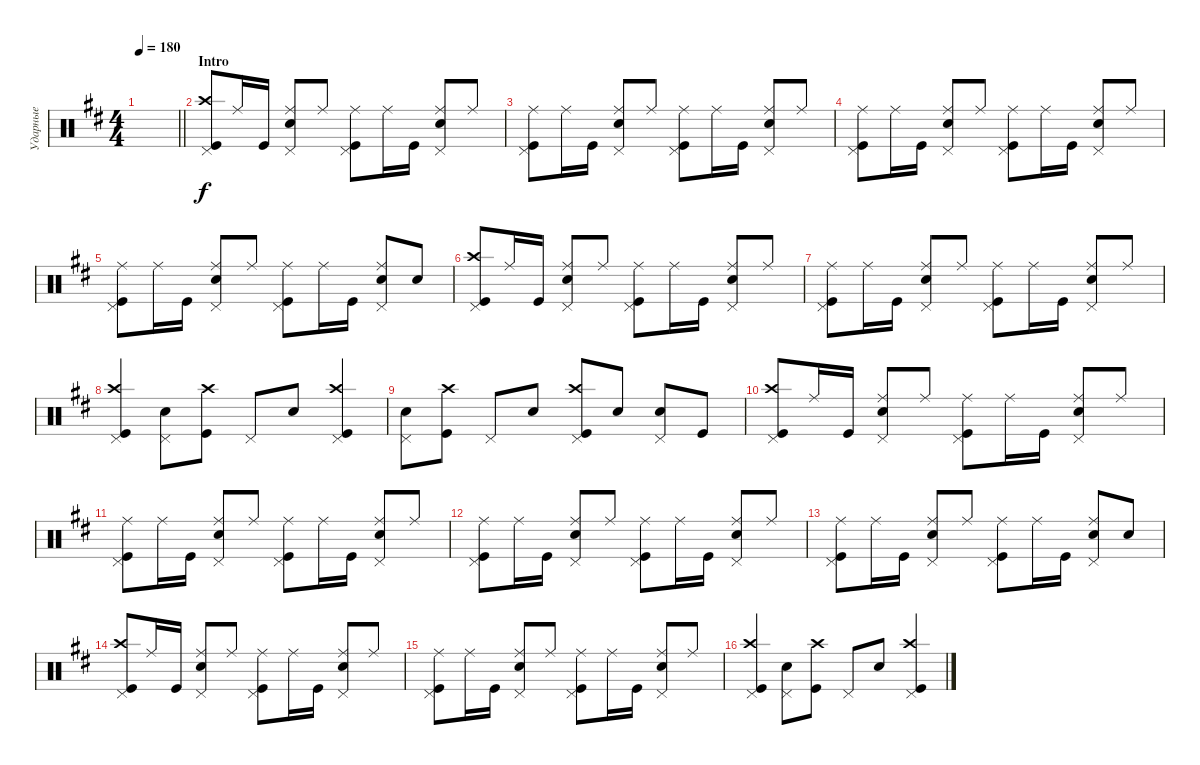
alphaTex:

\track ("Ударные" "Ударные") {instrument percussion}
\staff {score}
\articulation defaults
\ts (4 4)
\tempo 180
\clef neutral
\barLineRight lightlight
\ks bminor
|
\section ("" "Intro")
("Kick (hit)" "Crash high (hit)" "Pedal Hi-Hat (hit)").8 "Ride (middle)".16 "Kick (hit)".16 ("Pedal Hi-Hat (hit)" "Snare (hit) 2" "Ride (middle)").8 "Ride (middle)".8 ("Kick (hit)" "Pedal Hi-Hat (hit)" "Ride (middle)").8 "Ride (middle)".16 "Kick (hit)".16 ("Snare (hit) 2" "Pedal Hi-Hat (hit)" "Ride (middle)").8 "Ride (middle)".8 |
("Ride (middle)" "Kick (hit)" "Pedal Hi-Hat (hit)").8 "Ride (middle)".16 "Kick (hit)".16 ("Pedal Hi-Hat (hit)" "Snare (hit) 2" "Ride (middle)").8 "Ride (middle)".8 ("Kick (hit)" "Pedal Hi-Hat (hit)" "Ride (middle)").8 "Ride (middle)".16 "Kick (hit)".16 ("Snare (hit) 2" "Pedal Hi-Hat (hit)" "Ride (middle)").8 "Ride (middle)".8 |
("Ride (middle)" "Kick (hit)" "Pedal Hi-Hat (hit)").8 "Ride (middle)".16 "Kick (hit)".16 ("Pedal Hi-Hat (hit)" "Snare (hit) 2" "Ride (middle)").8 "Ride (middle)".8 ("Kick (hit)" "Pedal Hi-Hat (hit)" "Ride (middle)").8 "Ride (middle)".16 "Kick (hit)".16 ("Snare (hit) 2" "Pedal Hi-Hat (hit)" "Ride (middle)").8 "Ride (middle)".8 |
("Ride (middle)" "Kick (hit)" "Pedal Hi-Hat (hit)").8 "Ride (middle)".16 "Kick (hit)".16 ("Pedal Hi-Hat (hit)" "Snare (hit) 2" "Ride (middle)").8 "Ride (middle)".8 ("Kick (hit)" "Pedal Hi-Hat (hit)" "Ride (middle)").8 "Ride (middle)".16 "Kick (hit)".16 ("Snare (hit) 2" "Pedal Hi-Hat (hit)" "Ride (middle)").8 "Snare (hit) 2".8 |
("Kick (hit)" "Crash high (hit)" "Pedal Hi-Hat (hit)").8 "Ride (middle)".16 "Kick (hit)".16 ("Pedal Hi-Hat (hit)" "Snare (hit) 2" "Ride (middle)").8 "Ride (middle)".8 ("Kick (hit)" "Pedal Hi-Hat (hit)" "Ride (middle)").8 "Ride (middle)".16 "Kick (hit)".16 ("Snare (hit) 2" "Pedal Hi-Hat (hit)" "Ride (middle)").8 "Ride (middle)".8 |
("Ride (middle)" "Kick (hit)" "Pedal Hi-Hat (hit)").8 "Ride (middle)".16 "Kick (hit)".16 ("Pedal Hi-Hat (hit)" "Snare (hit) 2" "Ride (middle)").8 "Ride (middle)".8 ("Kick (hit)" "Pedal Hi-Hat (hit)" "Ride (middle)").8 "Ride (middle)".16 "Kick (hit)".16 ("Snare (hit) 2" "Pedal Hi-Hat (hit)" "Ride (middle)").8 "Ride (middle)".8 |
("Kick (hit)" "Crash high (hit)" "Pedal Hi-Hat (hit)").4 ("Snare (hit) 2" "Pedal Hi-Hat (hit)").8 ("Kick (hit)" "Crash high (hit)").8 "Pedal Hi-Hat (hit)".8 "Snare (hit) 2".8 ("Kick (hit)" "Crash high (hit)" "Pedal Hi-Hat (hit)").4 |
("Snare (hit) 2" "Pedal Hi-Hat (hit)").8 ("Kick (hit)" "Crash high (hit)").8 "Pedal Hi-Hat (hit)".8 "Snare (hit) 2".8 ("Kick (hit)" "Crash high (hit)" "Pedal Hi-Hat (hit)").8 "Snare (hit) 2".8 ("Snare (hit) 2" "Pedal Hi-Hat (hit)").8 "Kick (hit)".8 |
("Kick (hit)" "Crash high (hit)" "Pedal Hi-Hat (hit)").8 "Ride (middle)".16 "Kick (hit)".16 ("Pedal Hi-Hat (hit)" "Snare (hit) 2" "Ride (middle)").8 "Ride (middle)".8 ("Kick (hit)" "Pedal Hi-Hat (hit)" "Ride (middle)").8 "Ride (middle)".16 "Kick (hit)".16 ("Snare (hit) 2" "Pedal Hi-Hat (hit)" "Ride (middle)").8 "Ride (middle)".8 |
("Ride (middle)" "Kick (hit)" "Pedal Hi-Hat (hit)").8 "Ride (middle)".16 "Kick (hit)".16 ("Pedal Hi-Hat (hit)" "Snare (hit) 2" "Ride (middle)").8 "Ride (middle)".8 ("Kick (hit)" "Pedal Hi-Hat (hit)" "Ride (middle)").8 "Ride (middle)".16 "Kick (hit)".16 ("Snare (hit) 2" "Pedal Hi-Hat (hit)" "Ride (middle)").8 "Ride (middle)".8 |
("Ride (middle)" "Kick (hit)" "Pedal Hi-Hat (hit)").8 "Ride (middle)".16 "Kick (hit)".16 ("Pedal Hi-Hat (hit)" "Snare (hit) 2" "Ride (middle)").8 "Ride (middle)".8 ("Kick (hit)" "Pedal Hi-Hat (hit)" "Ride (middle)").8 "Ride (middle)".16 "Kick (hit)".16 ("Snare (hit) 2" "Pedal Hi-Hat (hit)" "Ride (middle)").8 "Ride (middle)".8 |
("Ride (middle)" "Kick (hit)" "Pedal Hi-Hat (hit)").8 "Ride (middle)".16 "Kick (hit)".16 ("Pedal Hi-Hat (hit)" "Snare (hit) 2" "Ride (middle)").8 "Ride (middle)".8 ("Kick (hit)" "Pedal Hi-Hat (hit)" "Ride (middle)").8 "Ride (middle)".16 "Kick (hit)".16 ("Snare (hit) 2" "Pedal Hi-Hat (hit)" "Ride (middle)").8 "Snare (hit) 2".8 |
("Kick (hit)" "Crash high (hit)" "Pedal Hi-Hat (hit)").8 "Ride (middle)".16 "Kick (hit)".16 ("Pedal Hi-Hat (hit)" "Snare (hit) 2" "Ride (middle)").8 "Ride (middle)".8 ("Kick (hit)" "Pedal Hi-Hat (hit)" "Ride (middle)").8 "Ride (middle)".16 "Kick (hit)".16 ("Snare (hit) 2" "Pedal Hi-Hat (hit)" "Ride (middle)").8 "Ride (middle)".8 |
("Ride (middle)" "Kick (hit)" "Pedal Hi-Hat (hit)").8 "Ride (middle)".16 "Kick (hit)".16 ("Pedal Hi-Hat (hit)" "Snare (hit) 2" "Ride (middle)").8 "Ride (middle)".8 ("Kick (hit)" "Pedal Hi-Hat (hit)" "Ride (middle)").8 "Ride (middle)".16 "Kick (hit)".16 ("Snare (hit) 2" "Pedal Hi-Hat (hit)" "Ride (middle)").8 "Ride (middle)".8 |
("Kick (hit)" "Crash high (hit)" "Pedal Hi-Hat (hit)").4 ("Snare (hit) 2" "Pedal Hi-Hat (hit)").8 ("Kick (hit)" "Crash high (hit)").8 "Pedal Hi-Hat (hit)".8 "Snare (hit) 2".8 ("Kick (hit)" "Crash high (hit)" "Pedal Hi-Hat (hit)").4
